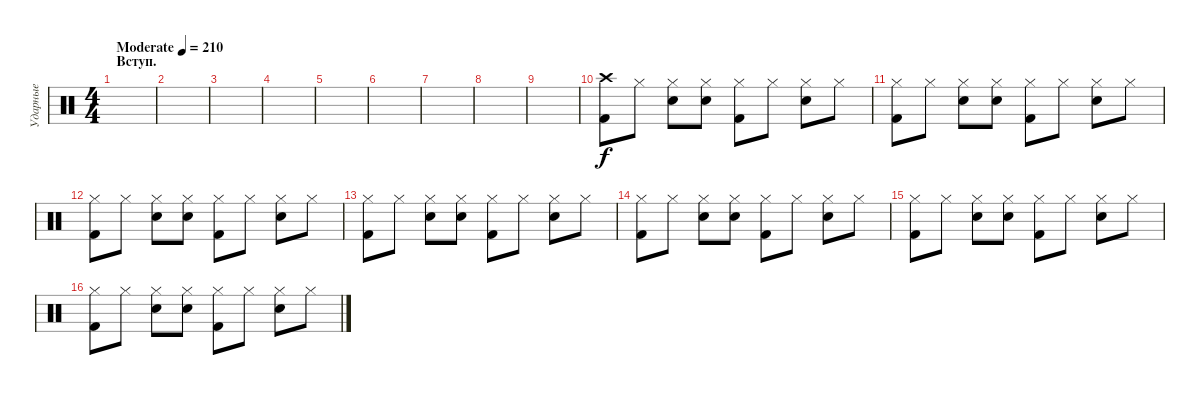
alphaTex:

\track ("Ударные" "Ударные") {instrument percussion}
\staff {score}
\articulation defaults
\ts (4 4)
\section ("" "Вступ.")
\tempo (210 "Moderate")
\clef neutral
\ks c
|
|
|
|
|
|
|
|
|
("Crash high (hit)" "Kick (hit) 2").8 "Hi-Hat (closed)".8 ("Hi-Hat (closed)" "Snare (hit) 2").8 ("Hi-Hat (closed)" "Snare (hit) 2").8 ("Hi-Hat (closed)" "Kick (hit) 2").8 "Hi-Hat (closed)".8 ("Hi-Hat (closed)" "Snare (hit) 2").8 "Hi-Hat (closed)".8 |
("Hi-Hat (closed)" "Kick (hit) 2").8 "Hi-Hat (closed)".8 ("Hi-Hat (closed)" "Snare (hit) 2").8 ("Hi-Hat (closed)" "Snare (hit) 2").8 ("Hi-Hat (closed)" "Kick (hit) 2").8 "Hi-Hat (closed)".8 ("Hi-Hat (closed)" "Snare (hit) 2").8 "Hi-Hat (closed)".8 |
("Hi-Hat (closed)" "Kick (hit) 2").8 "Hi-Hat (closed)".8 ("Hi-Hat (closed)" "Snare (hit) 2").8 ("Hi-Hat (closed)" "Snare (hit) 2").8 ("Hi-Hat (closed)" "Kick (hit) 2").8 "Hi-Hat (closed)".8 ("Hi-Hat (closed)" "Snare (hit) 2").8 "Hi-Hat (closed)".8 |
("Hi-Hat (closed)" "Kick (hit) 2").8 "Hi-Hat (closed)".8 ("Hi-Hat (closed)" "Snare (hit) 2").8 ("Hi-Hat (closed)" "Snare (hit) 2").8 ("Hi-Hat (closed)" "Kick (hit) 2").8 "Hi-Hat (closed)".8 ("Hi-Hat (closed)" "Snare (hit) 2").8 "Hi-Hat (closed)".8 |
("Hi-Hat (closed)" "Kick (hit) 2").8 "Hi-Hat (closed)".8 ("Hi-Hat (closed)" "Snare (hit) 2").8 ("Hi-Hat (closed)" "Snare (hit) 2").8 ("Hi-Hat (closed)" "Kick (hit) 2").8 "Hi-Hat (closed)".8 ("Hi-Hat (closed)" "Snare (hit) 2").8 "Hi-Hat (closed)".8 |
("Hi-Hat (closed)" "Kick (hit) 2").8 "Hi-Hat (closed)".8 ("Hi-Hat (closed)" "Snare (hit) 2").8 ("Hi-Hat (closed)" "Snare (hit) 2").8 ("Hi-Hat (closed)" "Kick (hit) 2").8 "Hi-Hat (closed)".8 ("Hi-Hat (closed)" "Snare (hit) 2").8 "Hi-Hat (closed)".8 |
("Hi-Hat (closed)" "Kick (hit) 2").8 "Hi-Hat (closed)".8 ("Hi-Hat (closed)" "Snare (hit) 2").8 ("Hi-Hat (closed)" "Snare (hit) 2").8 ("Hi-Hat (closed)" "Kick (hit) 2").8 "Hi-Hat (closed)".8 ("Hi-Hat (closed)" "Snare (hit) 2").8 "Hi-Hat (closed)".8
